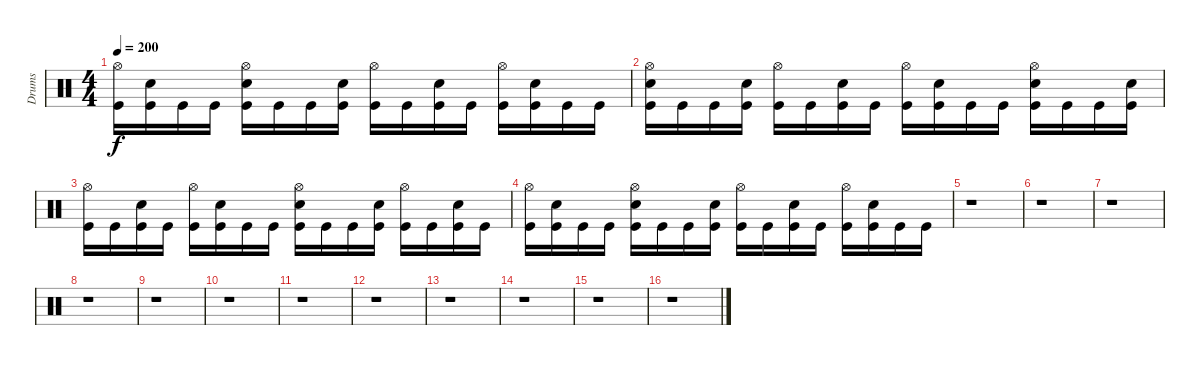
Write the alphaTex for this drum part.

\track ("Drums" "Drums") {instrument percussion}
\staff {score}
\articulation defaults
\ts (4 4)
\tempo 200
\clef neutral
\ks c
("Hi-Hat (open)" "Kick (hit)").16{dy f} ("Snare (hit) 2" "Kick (hit)").16 "Kick (hit)".16 "Kick (hit)".16 ("Hi-Hat (open)" "Snare (hit) 2" "Kick (hit)").16 "Kick (hit)".16 "Kick (hit)".16 ("Snare (hit) 2" "Kick (hit)").16 ("Hi-Hat (open)" "Kick (hit)").16 "Kick (hit)".16 ("Snare (hit) 2" "Kick (hit)").16 "Kick (hit)".16 ("Hi-Hat (open)" "Kick (hit)").16 ("Snare (hit) 2" "Kick (hit)").16 "Kick (hit)".16 "Kick (hit)".16 |
("Hi-Hat (open)" "Snare (hit) 2" "Kick (hit)").16 "Kick (hit)".16 "Kick (hit)".16 ("Snare (hit) 2" "Kick (hit)").16 ("Hi-Hat (open)" "Kick (hit)").16 "Kick (hit)".16 ("Snare (hit) 2" "Kick (hit)").16 "Kick (hit)".16 ("Hi-Hat (open)" "Kick (hit)").16 ("Snare (hit) 2" "Kick (hit)").16 "Kick (hit)".16 "Kick (hit)".16 ("Hi-Hat (open)" "Snare (hit) 2" "Kick (hit)").16 "Kick (hit)".16 "Kick (hit)".16 ("Snare (hit) 2" "Kick (hit)").16 |
("Hi-Hat (open)" "Kick (hit)").16 "Kick (hit)".16 ("Snare (hit) 2" "Kick (hit)").16 "Kick (hit)".16 ("Hi-Hat (open)" "Kick (hit)").16 ("Snare (hit) 2" "Kick (hit)").16 "Kick (hit)".16 "Kick (hit)".16 ("Hi-Hat (open)" "Snare (hit) 2" "Kick (hit)").16 "Kick (hit)".16 "Kick (hit)".16 ("Snare (hit) 2" "Kick (hit)").16 ("Hi-Hat (open)" "Kick (hit)").16 "Kick (hit)".16 ("Snare (hit) 2" "Kick (hit)").16 "Kick (hit)".16 |
("Hi-Hat (open)" "Kick (hit)").16 ("Snare (hit) 2" "Kick (hit)").16 "Kick (hit)".16 "Kick (hit)".16 ("Hi-Hat (open)" "Snare (hit) 2" "Kick (hit)").16 "Kick (hit)".16 "Kick (hit)".16 ("Snare (hit) 2" "Kick (hit)").16 ("Hi-Hat (open)" "Kick (hit)").16 "Kick (hit)".16 ("Snare (hit) 2" "Kick (hit)").16 "Kick (hit)".16 ("Hi-Hat (open)" "Kick (hit)").16 ("Snare (hit) 2" "Kick (hit)").16 "Kick (hit)".16 "Kick (hit)".16 |
r.1 |
r.1 |
r.1 |
r.1 |
r.1 |
r.1 |
r.1 |
r.1 |
r.1 |
r.1 |
r.1 |
r.1
